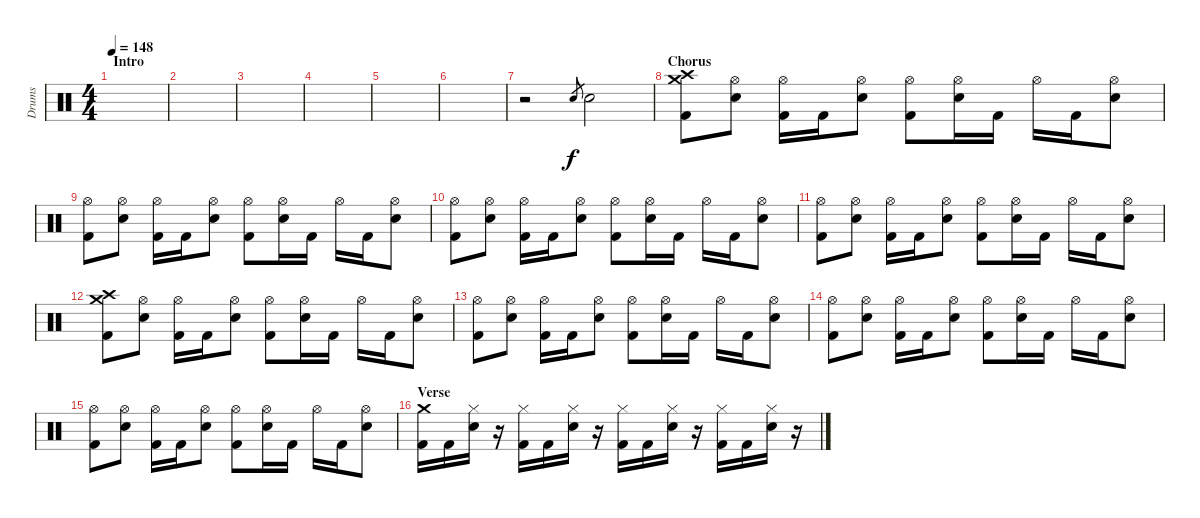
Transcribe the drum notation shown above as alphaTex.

\track ("Drums" "Drums") {instrument percussion}
\staff {score}
\articulation defaults
\ts (4 4)
\section ("" "Intro")
\tempo 148
\clef neutral
\ks c
|
|
|
|
|
|
r.2 "Electric Snare (hit)".8{gr} "Electric Snare (hit)".2 |
\section ("" "Chorus")
("Crash high (hit)" "Crash medium (hit)" "Kick (hit) 2").8 ("Hi-Hat (open)" "Electric Snare (hit)").8 ("Hi-Hat (open)" "Kick (hit) 2").16 "Kick (hit) 2".16 ("Hi-Hat (open)" "Electric Snare (hit)").8 ("Hi-Hat (open)" "Kick (hit) 2").8 ("Hi-Hat (open)" "Electric Snare (hit)").16 "Kick (hit) 2".16 "Hi-Hat (open)".16 "Kick (hit) 2".16 ("Hi-Hat (open)" "Electric Snare (hit)").8 |
("Hi-Hat (open)" "Kick (hit) 2").8 ("Hi-Hat (open)" "Electric Snare (hit)").8 ("Hi-Hat (open)" "Kick (hit) 2").16 "Kick (hit) 2".16 ("Hi-Hat (open)" "Electric Snare (hit)").8 ("Hi-Hat (open)" "Kick (hit) 2").8 ("Hi-Hat (open)" "Electric Snare (hit)").16 "Kick (hit) 2".16 "Hi-Hat (open)".16 "Kick (hit) 2".16 ("Hi-Hat (open)" "Electric Snare (hit)").8 |
("Hi-Hat (open)" "Kick (hit) 2").8 ("Hi-Hat (open)" "Electric Snare (hit)").8 ("Hi-Hat (open)" "Kick (hit) 2").16 "Kick (hit) 2".16 ("Hi-Hat (open)" "Electric Snare (hit)").8 ("Hi-Hat (open)" "Kick (hit) 2").8 ("Hi-Hat (open)" "Electric Snare (hit)").16 "Kick (hit) 2".16 "Hi-Hat (open)".16 "Kick (hit) 2".16 ("Hi-Hat (open)" "Electric Snare (hit)").8 |
("Hi-Hat (open)" "Kick (hit) 2").8 ("Hi-Hat (open)" "Electric Snare (hit)").8 ("Hi-Hat (open)" "Kick (hit) 2").16 "Kick (hit) 2".16 ("Hi-Hat (open)" "Electric Snare (hit)").8 ("Hi-Hat (open)" "Kick (hit) 2").8 ("Hi-Hat (open)" "Electric Snare (hit)").16 "Kick (hit) 2".16 "Hi-Hat (open)".16 "Kick (hit) 2".16 ("Hi-Hat (open)" "Electric Snare (hit)").8 |
("Crash high (hit)" "Crash medium (hit)" "Kick (hit) 2").8 ("Hi-Hat (open)" "Electric Snare (hit)").8 ("Hi-Hat (open)" "Kick (hit) 2").16 "Kick (hit) 2".16 ("Hi-Hat (open)" "Electric Snare (hit)").8 ("Hi-Hat (open)" "Kick (hit) 2").8 ("Hi-Hat (open)" "Electric Snare (hit)").16 "Kick (hit) 2".16 "Hi-Hat (open)".16 "Kick (hit) 2".16 ("Hi-Hat (open)" "Electric Snare (hit)").8 |
("Hi-Hat (open)" "Kick (hit) 2").8 ("Hi-Hat (open)" "Electric Snare (hit)").8 ("Hi-Hat (open)" "Kick (hit) 2").16 "Kick (hit) 2".16 ("Hi-Hat (open)" "Electric Snare (hit)").8 ("Hi-Hat (open)" "Kick (hit) 2").8 ("Hi-Hat (open)" "Electric Snare (hit)").16 "Kick (hit) 2".16 "Hi-Hat (open)".16 "Kick (hit) 2".16 ("Hi-Hat (open)" "Electric Snare (hit)").8 |
("Hi-Hat (open)" "Kick (hit) 2").8 ("Hi-Hat (open)" "Electric Snare (hit)").8 ("Hi-Hat (open)" "Kick (hit) 2").16 "Kick (hit) 2".16 ("Hi-Hat (open)" "Electric Snare (hit)").8 ("Hi-Hat (open)" "Kick (hit) 2").8 ("Hi-Hat (open)" "Electric Snare (hit)").16 "Kick (hit) 2".16 "Hi-Hat (open)".16 "Kick (hit) 2".16 ("Hi-Hat (open)" "Electric Snare (hit)").8 |
("Hi-Hat (open)" "Kick (hit) 2").8 ("Hi-Hat (open)" "Electric Snare (hit)").8 ("Hi-Hat (open)" "Kick (hit) 2").16 "Kick (hit) 2".16 ("Hi-Hat (open)" "Electric Snare (hit)").8 ("Hi-Hat (open)" "Kick (hit) 2").8 ("Hi-Hat (open)" "Electric Snare (hit)").16 "Kick (hit) 2".16 "Hi-Hat (open)".16 "Kick (hit) 2".16 ("Hi-Hat (open)" "Electric Snare (hit)").8 |
\section ("" "Verse")
("Crash medium (hit)" "Kick (hit) 2").16 "Kick (hit) 2".16 ("Hi-Hat (closed)" "Electric Snare (hit)").16 r.16 ("Hi-Hat (closed)" "Kick (hit) 2").16 "Kick (hit) 2".16 ("Hi-Hat (closed)" "Electric Snare (hit)").16 r.16 ("Hi-Hat (closed)" "Kick (hit) 2").16 "Kick (hit) 2".16 ("Hi-Hat (closed)" "Electric Snare (hit)").16 r.16 ("Hi-Hat (closed)" "Kick (hit) 2").16 "Kick (hit) 2".16 ("Hi-Hat (closed)" "Electric Snare (hit)").16 r.16
